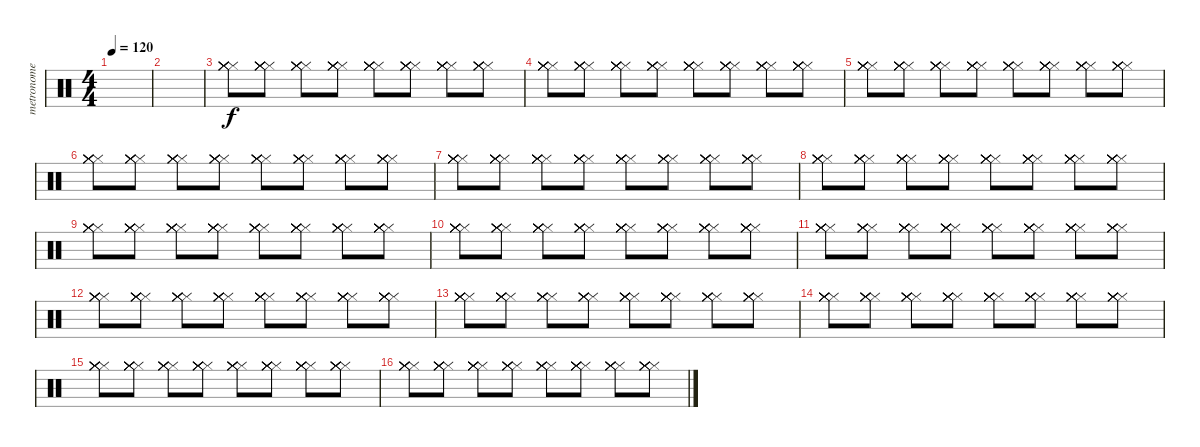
\track ("metronome aQme" "metronome ") {instrument percussion}
\staff {score}
\articulation defaults
\ts (4 4)
\tempo 120
\clef neutral
\ks c
|
|
("Hi-Hat (closed)" "Hi-Hat (closed)" "Hi-Hat (closed)" "Hi-Hat (closed)" "Hi-Hat (closed)" "Hi-Hat (closed)").8 ("Hi-Hat (closed)" "Hi-Hat (closed)" "Hi-Hat (closed)" "Hi-Hat (closed)" "Hi-Hat (closed)" "Hi-Hat (closed)").8 ("Hi-Hat (closed)" "Hi-Hat (closed)" "Hi-Hat (closed)" "Hi-Hat (closed)" "Hi-Hat (closed)" "Hi-Hat (closed)").8 ("Hi-Hat (closed)" "Hi-Hat (closed)" "Hi-Hat (closed)" "Hi-Hat (closed)" "Hi-Hat (closed)" "Hi-Hat (closed)").8 ("Hi-Hat (closed)" "Hi-Hat (closed)" "Hi-Hat (closed)" "Hi-Hat (closed)" "Hi-Hat (closed)" "Hi-Hat (closed)").8 ("Hi-Hat (closed)" "Hi-Hat (closed)" "Hi-Hat (closed)" "Hi-Hat (closed)" "Hi-Hat (closed)" "Hi-Hat (closed)").8 ("Hi-Hat (closed)" "Hi-Hat (closed)" "Hi-Hat (closed)" "Hi-Hat (closed)" "Hi-Hat (closed)" "Hi-Hat (closed)").8 ("Hi-Hat (closed)" "Hi-Hat (closed)" "Hi-Hat (closed)" "Hi-Hat (closed)" "Hi-Hat (closed)" "Hi-Hat (closed)").8 |
("Hi-Hat (closed)" "Hi-Hat (closed)" "Hi-Hat (closed)" "Hi-Hat (closed)" "Hi-Hat (closed)" "Hi-Hat (closed)").8 ("Hi-Hat (closed)" "Hi-Hat (closed)" "Hi-Hat (closed)" "Hi-Hat (closed)" "Hi-Hat (closed)" "Hi-Hat (closed)").8 ("Hi-Hat (closed)" "Hi-Hat (closed)" "Hi-Hat (closed)" "Hi-Hat (closed)" "Hi-Hat (closed)" "Hi-Hat (closed)").8 ("Hi-Hat (closed)" "Hi-Hat (closed)" "Hi-Hat (closed)" "Hi-Hat (closed)" "Hi-Hat (closed)" "Hi-Hat (closed)").8 ("Hi-Hat (closed)" "Hi-Hat (closed)" "Hi-Hat (closed)" "Hi-Hat (closed)" "Hi-Hat (closed)" "Hi-Hat (closed)").8 ("Hi-Hat (closed)" "Hi-Hat (closed)" "Hi-Hat (closed)" "Hi-Hat (closed)" "Hi-Hat (closed)" "Hi-Hat (closed)").8 ("Hi-Hat (closed)" "Hi-Hat (closed)" "Hi-Hat (closed)" "Hi-Hat (closed)" "Hi-Hat (closed)" "Hi-Hat (closed)").8 ("Hi-Hat (closed)" "Hi-Hat (closed)" "Hi-Hat (closed)" "Hi-Hat (closed)" "Hi-Hat (closed)" "Hi-Hat (closed)").8 |
("Hi-Hat (closed)" "Hi-Hat (closed)" "Hi-Hat (closed)" "Hi-Hat (closed)" "Hi-Hat (closed)" "Hi-Hat (closed)").8 ("Hi-Hat (closed)" "Hi-Hat (closed)" "Hi-Hat (closed)" "Hi-Hat (closed)" "Hi-Hat (closed)" "Hi-Hat (closed)").8 ("Hi-Hat (closed)" "Hi-Hat (closed)" "Hi-Hat (closed)" "Hi-Hat (closed)" "Hi-Hat (closed)" "Hi-Hat (closed)").8 ("Hi-Hat (closed)" "Hi-Hat (closed)" "Hi-Hat (closed)" "Hi-Hat (closed)" "Hi-Hat (closed)" "Hi-Hat (closed)").8 ("Hi-Hat (closed)" "Hi-Hat (closed)" "Hi-Hat (closed)" "Hi-Hat (closed)" "Hi-Hat (closed)" "Hi-Hat (closed)").8 ("Hi-Hat (closed)" "Hi-Hat (closed)" "Hi-Hat (closed)" "Hi-Hat (closed)" "Hi-Hat (closed)" "Hi-Hat (closed)").8 ("Hi-Hat (closed)" "Hi-Hat (closed)" "Hi-Hat (closed)" "Hi-Hat (closed)" "Hi-Hat (closed)" "Hi-Hat (closed)").8 ("Hi-Hat (closed)" "Hi-Hat (closed)" "Hi-Hat (closed)" "Hi-Hat (closed)" "Hi-Hat (closed)" "Hi-Hat (closed)").8 |
("Hi-Hat (closed)" "Hi-Hat (closed)" "Hi-Hat (closed)" "Hi-Hat (closed)" "Hi-Hat (closed)" "Hi-Hat (closed)").8 ("Hi-Hat (closed)" "Hi-Hat (closed)" "Hi-Hat (closed)" "Hi-Hat (closed)" "Hi-Hat (closed)" "Hi-Hat (closed)").8 ("Hi-Hat (closed)" "Hi-Hat (closed)" "Hi-Hat (closed)" "Hi-Hat (closed)" "Hi-Hat (closed)" "Hi-Hat (closed)").8 ("Hi-Hat (closed)" "Hi-Hat (closed)" "Hi-Hat (closed)" "Hi-Hat (closed)" "Hi-Hat (closed)" "Hi-Hat (closed)").8 ("Hi-Hat (closed)" "Hi-Hat (closed)" "Hi-Hat (closed)" "Hi-Hat (closed)" "Hi-Hat (closed)" "Hi-Hat (closed)").8 ("Hi-Hat (closed)" "Hi-Hat (closed)" "Hi-Hat (closed)" "Hi-Hat (closed)" "Hi-Hat (closed)" "Hi-Hat (closed)").8 ("Hi-Hat (closed)" "Hi-Hat (closed)" "Hi-Hat (closed)" "Hi-Hat (closed)" "Hi-Hat (closed)" "Hi-Hat (closed)").8 ("Hi-Hat (closed)" "Hi-Hat (closed)" "Hi-Hat (closed)" "Hi-Hat (closed)" "Hi-Hat (closed)" "Hi-Hat (closed)").8 |
("Hi-Hat (closed)" "Hi-Hat (closed)" "Hi-Hat (closed)" "Hi-Hat (closed)" "Hi-Hat (closed)" "Hi-Hat (closed)").8 ("Hi-Hat (closed)" "Hi-Hat (closed)" "Hi-Hat (closed)" "Hi-Hat (closed)" "Hi-Hat (closed)" "Hi-Hat (closed)").8 ("Hi-Hat (closed)" "Hi-Hat (closed)" "Hi-Hat (closed)" "Hi-Hat (closed)" "Hi-Hat (closed)" "Hi-Hat (closed)").8 ("Hi-Hat (closed)" "Hi-Hat (closed)" "Hi-Hat (closed)" "Hi-Hat (closed)" "Hi-Hat (closed)" "Hi-Hat (closed)").8 ("Hi-Hat (closed)" "Hi-Hat (closed)" "Hi-Hat (closed)" "Hi-Hat (closed)" "Hi-Hat (closed)" "Hi-Hat (closed)").8 ("Hi-Hat (closed)" "Hi-Hat (closed)" "Hi-Hat (closed)" "Hi-Hat (closed)" "Hi-Hat (closed)" "Hi-Hat (closed)").8 ("Hi-Hat (closed)" "Hi-Hat (closed)" "Hi-Hat (closed)" "Hi-Hat (closed)" "Hi-Hat (closed)" "Hi-Hat (closed)").8 ("Hi-Hat (closed)" "Hi-Hat (closed)" "Hi-Hat (closed)" "Hi-Hat (closed)" "Hi-Hat (closed)" "Hi-Hat (closed)").8 |
("Hi-Hat (closed)" "Hi-Hat (closed)" "Hi-Hat (closed)" "Hi-Hat (closed)" "Hi-Hat (closed)" "Hi-Hat (closed)").8 ("Hi-Hat (closed)" "Hi-Hat (closed)" "Hi-Hat (closed)" "Hi-Hat (closed)" "Hi-Hat (closed)" "Hi-Hat (closed)").8 ("Hi-Hat (closed)" "Hi-Hat (closed)" "Hi-Hat (closed)" "Hi-Hat (closed)" "Hi-Hat (closed)" "Hi-Hat (closed)").8 ("Hi-Hat (closed)" "Hi-Hat (closed)" "Hi-Hat (closed)" "Hi-Hat (closed)" "Hi-Hat (closed)" "Hi-Hat (closed)").8 ("Hi-Hat (closed)" "Hi-Hat (closed)" "Hi-Hat (closed)" "Hi-Hat (closed)" "Hi-Hat (closed)" "Hi-Hat (closed)").8 ("Hi-Hat (closed)" "Hi-Hat (closed)" "Hi-Hat (closed)" "Hi-Hat (closed)" "Hi-Hat (closed)" "Hi-Hat (closed)").8 ("Hi-Hat (closed)" "Hi-Hat (closed)" "Hi-Hat (closed)" "Hi-Hat (closed)" "Hi-Hat (closed)" "Hi-Hat (closed)").8 ("Hi-Hat (closed)" "Hi-Hat (closed)" "Hi-Hat (closed)" "Hi-Hat (closed)" "Hi-Hat (closed)" "Hi-Hat (closed)").8 |
("Hi-Hat (closed)" "Hi-Hat (closed)" "Hi-Hat (closed)" "Hi-Hat (closed)" "Hi-Hat (closed)" "Hi-Hat (closed)").8 ("Hi-Hat (closed)" "Hi-Hat (closed)" "Hi-Hat (closed)" "Hi-Hat (closed)" "Hi-Hat (closed)" "Hi-Hat (closed)").8 ("Hi-Hat (closed)" "Hi-Hat (closed)" "Hi-Hat (closed)" "Hi-Hat (closed)" "Hi-Hat (closed)" "Hi-Hat (closed)").8 ("Hi-Hat (closed)" "Hi-Hat (closed)" "Hi-Hat (closed)" "Hi-Hat (closed)" "Hi-Hat (closed)" "Hi-Hat (closed)").8 ("Hi-Hat (closed)" "Hi-Hat (closed)" "Hi-Hat (closed)" "Hi-Hat (closed)" "Hi-Hat (closed)" "Hi-Hat (closed)").8 ("Hi-Hat (closed)" "Hi-Hat (closed)" "Hi-Hat (closed)" "Hi-Hat (closed)" "Hi-Hat (closed)" "Hi-Hat (closed)").8 ("Hi-Hat (closed)" "Hi-Hat (closed)" "Hi-Hat (closed)" "Hi-Hat (closed)" "Hi-Hat (closed)" "Hi-Hat (closed)").8 ("Hi-Hat (closed)" "Hi-Hat (closed)" "Hi-Hat (closed)" "Hi-Hat (closed)" "Hi-Hat (closed)" "Hi-Hat (closed)").8 |
("Hi-Hat (closed)" "Hi-Hat (closed)" "Hi-Hat (closed)" "Hi-Hat (closed)" "Hi-Hat (closed)" "Hi-Hat (closed)").8 ("Hi-Hat (closed)" "Hi-Hat (closed)" "Hi-Hat (closed)" "Hi-Hat (closed)" "Hi-Hat (closed)" "Hi-Hat (closed)").8 ("Hi-Hat (closed)" "Hi-Hat (closed)" "Hi-Hat (closed)" "Hi-Hat (closed)" "Hi-Hat (closed)" "Hi-Hat (closed)").8 ("Hi-Hat (closed)" "Hi-Hat (closed)" "Hi-Hat (closed)" "Hi-Hat (closed)" "Hi-Hat (closed)" "Hi-Hat (closed)").8 ("Hi-Hat (closed)" "Hi-Hat (closed)" "Hi-Hat (closed)" "Hi-Hat (closed)" "Hi-Hat (closed)" "Hi-Hat (closed)").8 ("Hi-Hat (closed)" "Hi-Hat (closed)" "Hi-Hat (closed)" "Hi-Hat (closed)" "Hi-Hat (closed)" "Hi-Hat (closed)").8 ("Hi-Hat (closed)" "Hi-Hat (closed)" "Hi-Hat (closed)" "Hi-Hat (closed)" "Hi-Hat (closed)" "Hi-Hat (closed)").8 ("Hi-Hat (closed)" "Hi-Hat (closed)" "Hi-Hat (closed)" "Hi-Hat (closed)" "Hi-Hat (closed)" "Hi-Hat (closed)").8 |
("Hi-Hat (closed)" "Hi-Hat (closed)" "Hi-Hat (closed)" "Hi-Hat (closed)" "Hi-Hat (closed)" "Hi-Hat (closed)").8 ("Hi-Hat (closed)" "Hi-Hat (closed)" "Hi-Hat (closed)" "Hi-Hat (closed)" "Hi-Hat (closed)" "Hi-Hat (closed)").8 ("Hi-Hat (closed)" "Hi-Hat (closed)" "Hi-Hat (closed)" "Hi-Hat (closed)" "Hi-Hat (closed)" "Hi-Hat (closed)").8 ("Hi-Hat (closed)" "Hi-Hat (closed)" "Hi-Hat (closed)" "Hi-Hat (closed)" "Hi-Hat (closed)" "Hi-Hat (closed)").8 ("Hi-Hat (closed)" "Hi-Hat (closed)" "Hi-Hat (closed)" "Hi-Hat (closed)" "Hi-Hat (closed)" "Hi-Hat (closed)").8 ("Hi-Hat (closed)" "Hi-Hat (closed)" "Hi-Hat (closed)" "Hi-Hat (closed)" "Hi-Hat (closed)" "Hi-Hat (closed)").8 ("Hi-Hat (closed)" "Hi-Hat (closed)" "Hi-Hat (closed)" "Hi-Hat (closed)" "Hi-Hat (closed)" "Hi-Hat (closed)").8 ("Hi-Hat (closed)" "Hi-Hat (closed)" "Hi-Hat (closed)" "Hi-Hat (closed)" "Hi-Hat (closed)" "Hi-Hat (closed)").8 |
("Hi-Hat (closed)" "Hi-Hat (closed)" "Hi-Hat (closed)" "Hi-Hat (closed)" "Hi-Hat (closed)" "Hi-Hat (closed)").8 ("Hi-Hat (closed)" "Hi-Hat (closed)" "Hi-Hat (closed)" "Hi-Hat (closed)" "Hi-Hat (closed)" "Hi-Hat (closed)").8 ("Hi-Hat (closed)" "Hi-Hat (closed)" "Hi-Hat (closed)" "Hi-Hat (closed)" "Hi-Hat (closed)" "Hi-Hat (closed)").8 ("Hi-Hat (closed)" "Hi-Hat (closed)" "Hi-Hat (closed)" "Hi-Hat (closed)" "Hi-Hat (closed)" "Hi-Hat (closed)").8 ("Hi-Hat (closed)" "Hi-Hat (closed)" "Hi-Hat (closed)" "Hi-Hat (closed)" "Hi-Hat (closed)" "Hi-Hat (closed)").8 ("Hi-Hat (closed)" "Hi-Hat (closed)" "Hi-Hat (closed)" "Hi-Hat (closed)" "Hi-Hat (closed)" "Hi-Hat (closed)").8 ("Hi-Hat (closed)" "Hi-Hat (closed)" "Hi-Hat (closed)" "Hi-Hat (closed)" "Hi-Hat (closed)" "Hi-Hat (closed)").8 ("Hi-Hat (closed)" "Hi-Hat (closed)" "Hi-Hat (closed)" "Hi-Hat (closed)" "Hi-Hat (closed)" "Hi-Hat (closed)").8 |
("Hi-Hat (closed)" "Hi-Hat (closed)" "Hi-Hat (closed)" "Hi-Hat (closed)" "Hi-Hat (closed)" "Hi-Hat (closed)").8 ("Hi-Hat (closed)" "Hi-Hat (closed)" "Hi-Hat (closed)" "Hi-Hat (closed)" "Hi-Hat (closed)" "Hi-Hat (closed)").8 ("Hi-Hat (closed)" "Hi-Hat (closed)" "Hi-Hat (closed)" "Hi-Hat (closed)" "Hi-Hat (closed)" "Hi-Hat (closed)").8 ("Hi-Hat (closed)" "Hi-Hat (closed)" "Hi-Hat (closed)" "Hi-Hat (closed)" "Hi-Hat (closed)" "Hi-Hat (closed)").8 ("Hi-Hat (closed)" "Hi-Hat (closed)" "Hi-Hat (closed)" "Hi-Hat (closed)" "Hi-Hat (closed)" "Hi-Hat (closed)").8 ("Hi-Hat (closed)" "Hi-Hat (closed)" "Hi-Hat (closed)" "Hi-Hat (closed)" "Hi-Hat (closed)" "Hi-Hat (closed)").8 ("Hi-Hat (closed)" "Hi-Hat (closed)" "Hi-Hat (closed)" "Hi-Hat (closed)" "Hi-Hat (closed)" "Hi-Hat (closed)").8 ("Hi-Hat (closed)" "Hi-Hat (closed)" "Hi-Hat (closed)" "Hi-Hat (closed)" "Hi-Hat (closed)" "Hi-Hat (closed)").8 |
("Hi-Hat (closed)" "Hi-Hat (closed)" "Hi-Hat (closed)" "Hi-Hat (closed)" "Hi-Hat (closed)" "Hi-Hat (closed)").8 ("Hi-Hat (closed)" "Hi-Hat (closed)" "Hi-Hat (closed)" "Hi-Hat (closed)" "Hi-Hat (closed)" "Hi-Hat (closed)").8 ("Hi-Hat (closed)" "Hi-Hat (closed)" "Hi-Hat (closed)" "Hi-Hat (closed)" "Hi-Hat (closed)" "Hi-Hat (closed)").8 ("Hi-Hat (closed)" "Hi-Hat (closed)" "Hi-Hat (closed)" "Hi-Hat (closed)" "Hi-Hat (closed)" "Hi-Hat (closed)").8 ("Hi-Hat (closed)" "Hi-Hat (closed)" "Hi-Hat (closed)" "Hi-Hat (closed)" "Hi-Hat (closed)" "Hi-Hat (closed)").8 ("Hi-Hat (closed)" "Hi-Hat (closed)" "Hi-Hat (closed)" "Hi-Hat (closed)" "Hi-Hat (closed)" "Hi-Hat (closed)").8 ("Hi-Hat (closed)" "Hi-Hat (closed)" "Hi-Hat (closed)" "Hi-Hat (closed)" "Hi-Hat (closed)" "Hi-Hat (closed)").8 ("Hi-Hat (closed)" "Hi-Hat (closed)" "Hi-Hat (closed)" "Hi-Hat (closed)" "Hi-Hat (closed)" "Hi-Hat (closed)").8 |
("Hi-Hat (closed)" "Hi-Hat (closed)" "Hi-Hat (closed)" "Hi-Hat (closed)" "Hi-Hat (closed)" "Hi-Hat (closed)").8 ("Hi-Hat (closed)" "Hi-Hat (closed)" "Hi-Hat (closed)" "Hi-Hat (closed)" "Hi-Hat (closed)" "Hi-Hat (closed)").8 ("Hi-Hat (closed)" "Hi-Hat (closed)" "Hi-Hat (closed)" "Hi-Hat (closed)" "Hi-Hat (closed)" "Hi-Hat (closed)").8 ("Hi-Hat (closed)" "Hi-Hat (closed)" "Hi-Hat (closed)" "Hi-Hat (closed)" "Hi-Hat (closed)" "Hi-Hat (closed)").8 ("Hi-Hat (closed)" "Hi-Hat (closed)" "Hi-Hat (closed)" "Hi-Hat (closed)" "Hi-Hat (closed)" "Hi-Hat (closed)").8 ("Hi-Hat (closed)" "Hi-Hat (closed)" "Hi-Hat (closed)" "Hi-Hat (closed)" "Hi-Hat (closed)" "Hi-Hat (closed)").8 ("Hi-Hat (closed)" "Hi-Hat (closed)" "Hi-Hat (closed)" "Hi-Hat (closed)" "Hi-Hat (closed)" "Hi-Hat (closed)").8 ("Hi-Hat (closed)" "Hi-Hat (closed)" "Hi-Hat (closed)" "Hi-Hat (closed)" "Hi-Hat (closed)" "Hi-Hat (closed)").8 |
("Hi-Hat (closed)" "Hi-Hat (closed)" "Hi-Hat (closed)" "Hi-Hat (closed)" "Hi-Hat (closed)" "Hi-Hat (closed)").8 ("Hi-Hat (closed)" "Hi-Hat (closed)" "Hi-Hat (closed)" "Hi-Hat (closed)" "Hi-Hat (closed)" "Hi-Hat (closed)").8 ("Hi-Hat (closed)" "Hi-Hat (closed)" "Hi-Hat (closed)" "Hi-Hat (closed)" "Hi-Hat (closed)" "Hi-Hat (closed)").8 ("Hi-Hat (closed)" "Hi-Hat (closed)" "Hi-Hat (closed)" "Hi-Hat (closed)" "Hi-Hat (closed)" "Hi-Hat (closed)").8 ("Hi-Hat (closed)" "Hi-Hat (closed)" "Hi-Hat (closed)" "Hi-Hat (closed)" "Hi-Hat (closed)" "Hi-Hat (closed)").8 ("Hi-Hat (closed)" "Hi-Hat (closed)" "Hi-Hat (closed)" "Hi-Hat (closed)" "Hi-Hat (closed)" "Hi-Hat (closed)").8 ("Hi-Hat (closed)" "Hi-Hat (closed)" "Hi-Hat (closed)" "Hi-Hat (closed)" "Hi-Hat (closed)" "Hi-Hat (closed)").8 ("Hi-Hat (closed)" "Hi-Hat (closed)" "Hi-Hat (closed)" "Hi-Hat (closed)" "Hi-Hat (closed)" "Hi-Hat (closed)").8
